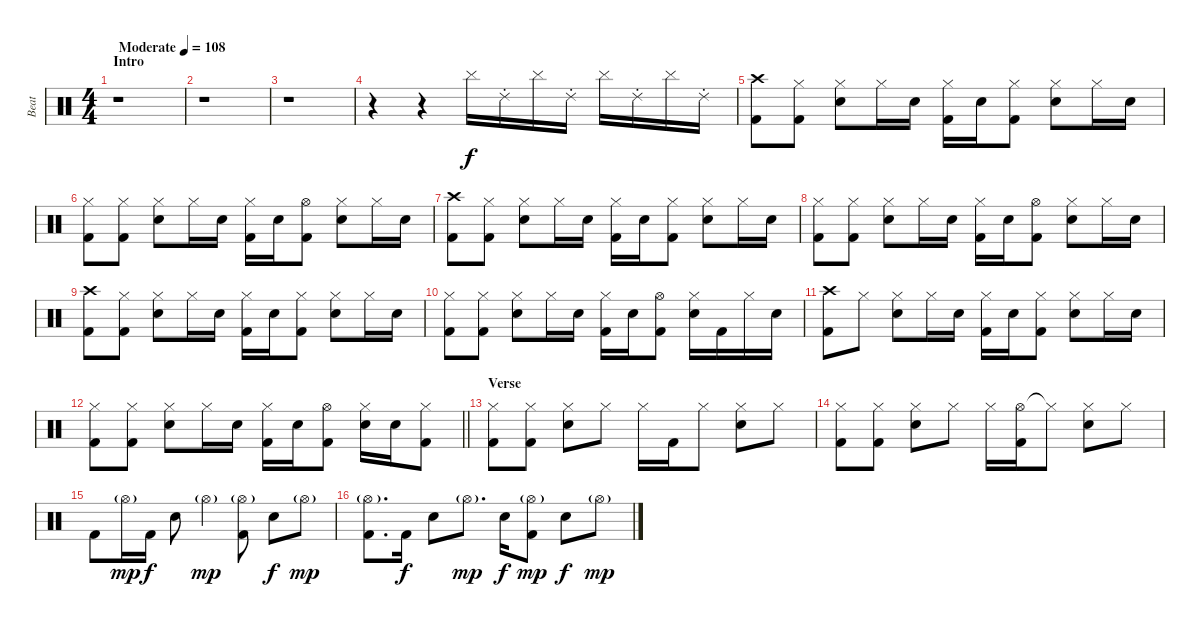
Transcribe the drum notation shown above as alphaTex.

\track ("Beat" "Beat") {instrument percussion}
\staff {score}
\articulation defaults
\ts (4 4)
\section ("" "Intro")
\tempo (108 "Moderate")
\clef neutral
\ks c
r.1{dy f} |
r.1 |
r.1 |
r.4 r.4 "Cymbal (hit)".16 "Ride (choke) 2".16 "Cymbal (hit)".16 "Ride (choke) 2".16 "Cymbal (hit)".16 "Ride (choke) 2".16 "Cymbal (hit)".16 "Ride (choke) 2".16 |
("Crash high (hit)" "Kick (hit) 2").8 ("Hi-Hat (closed)" "Kick (hit) 2").8 ("Hi-Hat (closed)" "Snare (hit) 2").8 "Hi-Hat (closed)".16 "Snare (hit) 2".16 ("Hi-Hat (closed)" "Kick (hit) 2").16 "Snare (hit) 2".16 ("Hi-Hat (closed)" "Kick (hit) 2").8 ("Hi-Hat (closed)" "Snare (hit) 2").8 "Hi-Hat (closed)".16 "Snare (hit) 2".16 |
("Hi-Hat (closed)" "Kick (hit) 2").8 ("Hi-Hat (closed)" "Kick (hit) 2").8 ("Hi-Hat (closed)" "Snare (hit) 2").8 "Hi-Hat (closed)".16 "Snare (hit) 2".16 ("Hi-Hat (closed)" "Kick (hit) 2").16 "Snare (hit) 2".16 ("Hi-Hat (open)" "Kick (hit) 2").8 ("Hi-Hat (closed)" "Snare (hit) 2").8 "Hi-Hat (closed)".16 "Snare (hit) 2".16 |
("Crash high (hit)" "Kick (hit) 2").8 ("Hi-Hat (closed)" "Kick (hit) 2").8 ("Hi-Hat (closed)" "Snare (hit) 2").8 "Hi-Hat (closed)".16 "Snare (hit) 2".16 ("Hi-Hat (closed)" "Kick (hit) 2").16 "Snare (hit) 2".16 ("Hi-Hat (closed)" "Kick (hit) 2").8 ("Hi-Hat (closed)" "Snare (hit) 2").8 "Hi-Hat (closed)".16 "Snare (hit) 2".16 |
("Hi-Hat (closed)" "Kick (hit) 2").8 ("Hi-Hat (closed)" "Kick (hit) 2").8 ("Hi-Hat (closed)" "Snare (hit) 2").8 "Hi-Hat (closed)".16 "Snare (hit) 2".16 ("Hi-Hat (closed)" "Kick (hit) 2").16 "Snare (hit) 2".16 ("Hi-Hat (open)" "Kick (hit) 2").8 ("Hi-Hat (closed)" "Snare (hit) 2").8 "Hi-Hat (closed)".16 "Snare (hit) 2".16 |
("Crash high (hit)" "Kick (hit) 2").8 ("Hi-Hat (closed)" "Kick (hit) 2").8 ("Hi-Hat (closed)" "Snare (hit) 2").8 "Hi-Hat (closed)".16 "Snare (hit) 2".16 ("Hi-Hat (closed)" "Kick (hit) 2").16 "Snare (hit) 2".16 ("Hi-Hat (closed)" "Kick (hit) 2").8 ("Hi-Hat (closed)" "Snare (hit) 2").8 "Hi-Hat (closed)".16 "Snare (hit) 2".16 |
("Hi-Hat (closed)" "Kick (hit) 2").8 ("Hi-Hat (closed)" "Kick (hit) 2").8 ("Hi-Hat (closed)" "Snare (hit) 2").8 "Hi-Hat (closed)".16 "Snare (hit) 2".16 ("Hi-Hat (closed)" "Kick (hit) 2").16 "Snare (hit) 2".16 ("Hi-Hat (open)" "Kick (hit) 2").8 ("Hi-Hat (closed)" "Snare (hit) 2").16 "Kick (hit) 2".16 "Hi-Hat (closed)".16 "Snare (hit) 2".16 |
("Crash high (hit)" "Kick (hit) 2").8 "Hi-Hat (closed)".8 ("Hi-Hat (closed)" "Snare (hit) 2").8 "Hi-Hat (closed)".16 "Snare (hit) 2".16 ("Hi-Hat (closed)" "Kick (hit) 2").16 "Snare (hit) 2".16 ("Hi-Hat (closed)" "Kick (hit) 2").8 ("Hi-Hat (closed)" "Snare (hit) 2").8 "Hi-Hat (closed)".16 "Snare (hit) 2".16 |
\barLineRight lightlight
("Hi-Hat (closed)" "Kick (hit) 2").8 ("Hi-Hat (closed)" "Kick (hit) 2").8 ("Hi-Hat (closed)" "Snare (hit) 2").8 "Hi-Hat (closed)".16 "Snare (hit) 2".16 ("Hi-Hat (closed)" "Kick (hit) 2").16 "Snare (hit) 2".16 ("Hi-Hat (open)" "Kick (hit) 2").8 ("Hi-Hat (closed)" "Snare (hit) 2").16 "Snare (hit) 2".16 ("Hi-Hat (closed)" "Kick (hit) 2").8 |
\section ("" "Verse")
("Hi-Hat (closed)" "Kick (hit) 2").8 ("Hi-Hat (closed)" "Kick (hit) 2").8 ("Hi-Hat (closed)" "Snare (hit) 2").8 "Hi-Hat (closed)".8 "Hi-Hat (closed)".16 "Kick (hit) 2".16 "Hi-Hat (closed)".8 ("Hi-Hat (closed)" "Snare (hit) 2").8 "Hi-Hat (closed)".8 |
("Hi-Hat (closed)" "Kick (hit) 2").8 ("Hi-Hat (closed)" "Kick (hit) 2").8 ("Hi-Hat (closed)" "Snare (hit) 2").8 "Hi-Hat (closed)".8 "Hi-Hat (closed)".16 ("Hi-Hat (open)" "Kick (hit) 2").16 "Hi-Hat (closed)"{t}.8 ("Hi-Hat (closed)" "Snare (hit) 2").8 "Hi-Hat (closed)".8 |
"Kick (hit) 2".8 "Hi-Hat (open)"{g}.16{dy mp} "Kick (hit) 2".16{dy f} "Snare (hit) 2".8 "Hi-Hat (open)"{g}.4{dy mp} ("Hi-Hat (open)"{g} "Kick (hit) 2").8 "Snare (hit) 2".8{dy f} "Hi-Hat (open)"{g}.8{dy mp} |
("Hi-Hat (open)"{g} "Kick (hit) 2").8{d} "Kick (hit) 2".16{dy f} "Snare (hit) 2".8 "Hi-Hat (open)"{g}.8{d dy mp} "Snare (hit) 2".16{dy f} ("Hi-Hat (open)"{g} "Kick (hit) 2").8{dy mp} "Snare (hit) 2".8{dy f} "Hi-Hat (open)"{g}.8{dy mp}
